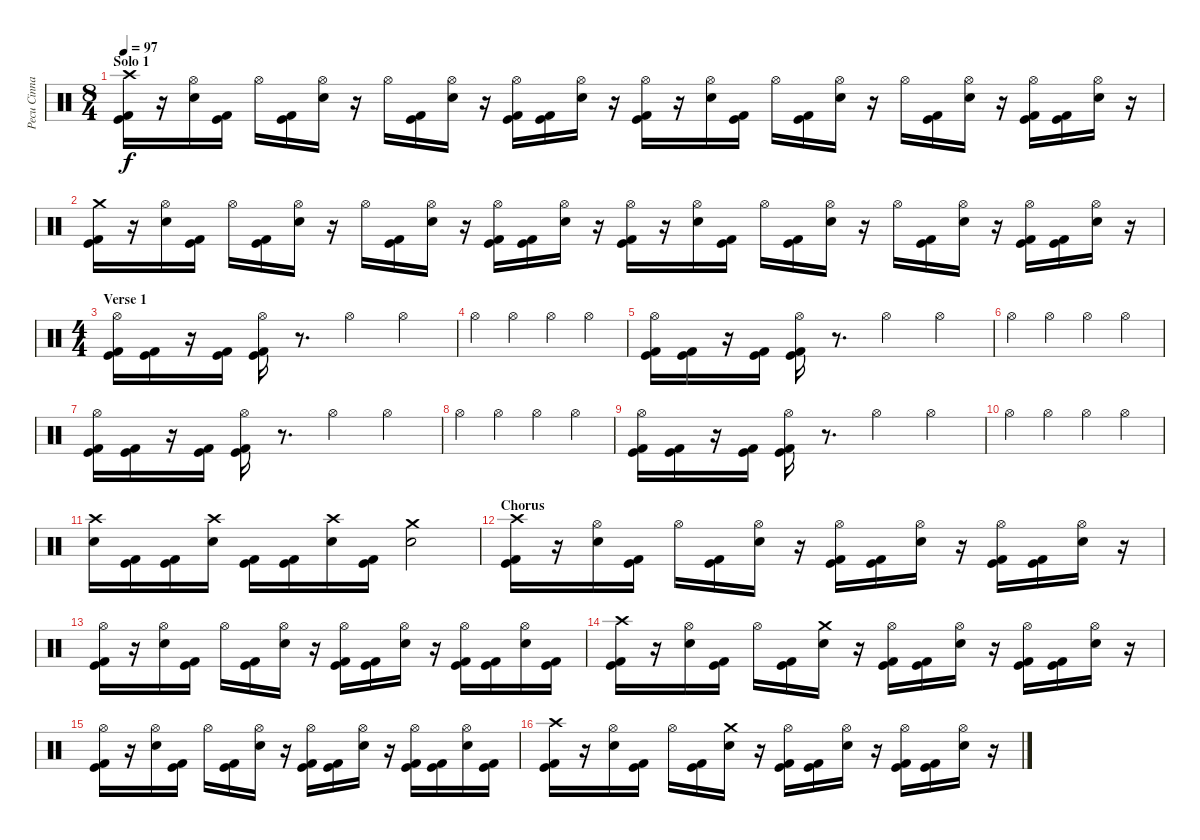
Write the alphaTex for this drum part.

\track ("Pecu Cinnari" "Pecu Cinna") {instrument percussion}
\staff {score}
\articulation defaults
\ts (8 4)
\section ("" "Solo 1")
\tempo 97
\clef neutral
\ks c
("Crash high (hit)" "Kick (hit)" "Kick (hit) 2").16{dy f} r.16 ("Hi-Hat (open)" "Electric Snare (hit)").16 ("Kick (hit)" "Kick (hit) 2").16 "Hi-Hat (open)".16 ("Kick (hit)" "Kick (hit) 2").16 ("Hi-Hat (open)" "Electric Snare (hit)").16 r.16 "Hi-Hat (open)".16 ("Kick (hit)" "Kick (hit) 2").16 ("Hi-Hat (open)" "Electric Snare (hit)").16 r.16 ("Hi-Hat (open)" "Kick (hit)" "Kick (hit) 2").16 ("Kick (hit)" "Kick (hit) 2").16 ("Hi-Hat (open)" "Electric Snare (hit)").16 r.16 ("Hi-Hat (open)" "Kick (hit)" "Kick (hit) 2").16 r.16 ("Hi-Hat (open)" "Electric Snare (hit)").16 ("Kick (hit)" "Kick (hit) 2").16 "Hi-Hat (open)".16 ("Kick (hit)" "Kick (hit) 2").16 ("Hi-Hat (open)" "Electric Snare (hit)").16 r.16 "Hi-Hat (open)".16 ("Kick (hit)" "Kick (hit) 2").16 ("Hi-Hat (open)" "Electric Snare (hit)").16 r.16 ("Hi-Hat (open)" "Kick (hit)" "Kick (hit) 2").16 ("Kick (hit)" "Kick (hit) 2").16 ("Hi-Hat (open)" "Electric Snare (hit)").16 r.16 |
("Crash medium (hit)" "Kick (hit)" "Kick (hit) 2").16 r.16 ("Hi-Hat (open)" "Electric Snare (hit)").16 ("Kick (hit)" "Kick (hit) 2").16 "Hi-Hat (open)".16 ("Kick (hit)" "Kick (hit) 2").16 ("Hi-Hat (open)" "Electric Snare (hit)").16 r.16 "Hi-Hat (open)".16 ("Kick (hit)" "Kick (hit) 2").16 ("Hi-Hat (open)" "Electric Snare (hit)").16 r.16 ("Hi-Hat (open)" "Kick (hit)" "Kick (hit) 2").16 ("Kick (hit)" "Kick (hit) 2").16 ("Hi-Hat (open)" "Electric Snare (hit)").16 r.16 ("Hi-Hat (open)" "Kick (hit)" "Kick (hit) 2").16 r.16 ("Hi-Hat (open)" "Electric Snare (hit)").16 ("Kick (hit)" "Kick (hit) 2").16 "Hi-Hat (open)".16 ("Kick (hit)" "Kick (hit) 2").16 ("Hi-Hat (open)" "Electric Snare (hit)").16 r.16 "Hi-Hat (open)".16 ("Kick (hit)" "Kick (hit) 2").16 ("Hi-Hat (open)" "Electric Snare (hit)").16 r.16 ("Hi-Hat (open)" "Kick (hit)" "Kick (hit) 2").16 ("Kick (hit)" "Kick (hit) 2").16 ("Hi-Hat (open)" "Electric Snare (hit)").16 r.16 |
\ts (4 4)
\section ("" "Verse 1")
("Hi-Hat (open)" "Kick (hit)" "Kick (hit) 2").16 ("Kick (hit)" "Kick (hit) 2").16 r.16 ("Kick (hit)" "Kick (hit) 2").16 ("Hi-Hat (open)" "Kick (hit)" "Kick (hit) 2").16 r.8{d} "Hi-Hat (open)".4 "Hi-Hat (open)".4 |
"Hi-Hat (open)".4 "Hi-Hat (open)".4 "Hi-Hat (open)".4 "Hi-Hat (open)".4 |
("Hi-Hat (open)" "Kick (hit)" "Kick (hit) 2").16 ("Kick (hit)" "Kick (hit) 2").16 r.16 ("Kick (hit)" "Kick (hit) 2").16 ("Hi-Hat (open)" "Kick (hit)" "Kick (hit) 2").16 r.8{d} "Hi-Hat (open)".4 "Hi-Hat (open)".4 |
"Hi-Hat (open)".4 "Hi-Hat (open)".4 "Hi-Hat (open)".4 "Hi-Hat (open)".4 |
("Hi-Hat (open)" "Kick (hit)" "Kick (hit) 2").16 ("Kick (hit)" "Kick (hit) 2").16 r.16 ("Kick (hit)" "Kick (hit) 2").16 ("Hi-Hat (open)" "Kick (hit)" "Kick (hit) 2").16 r.8{d} "Hi-Hat (open)".4 "Hi-Hat (open)".4 |
"Hi-Hat (open)".4 "Hi-Hat (open)".4 "Hi-Hat (open)".4 "Hi-Hat (open)".4 |
("Hi-Hat (open)" "Kick (hit)" "Kick (hit) 2").16 ("Kick (hit)" "Kick (hit) 2").16 r.16 ("Kick (hit)" "Kick (hit) 2").16 ("Hi-Hat (open)" "Kick (hit)" "Kick (hit) 2").16 r.8{d} "Hi-Hat (open)".4 "Hi-Hat (open)".4 |
"Hi-Hat (open)".4 "Hi-Hat (open)".4 "Hi-Hat (open)".4 "Hi-Hat (open)".4 |
("Crash high (hit)" "Electric Snare (hit)").16 ("Kick (hit)" "Kick (hit) 2").16 ("Kick (hit)" "Kick (hit) 2").16 ("Crash high (hit)" "Electric Snare (hit)").16 ("Kick (hit)" "Kick (hit) 2").16 ("Kick (hit)" "Kick (hit) 2").16 ("Crash high (hit)" "Electric Snare (hit)").16 ("Kick (hit)" "Kick (hit) 2").16 ("Crash medium (hit)" "Electric Snare (hit)").2 |
\section ("" "Chorus")
("Crash high (hit)" "Kick (hit)" "Kick (hit) 2").16 r.16 ("Hi-Hat (open)" "Electric Snare (hit)").16 ("Kick (hit)" "Kick (hit) 2").16 "Hi-Hat (open)".16 ("Kick (hit)" "Kick (hit) 2").16 ("Hi-Hat (open)" "Electric Snare (hit)").16 r.16 ("Hi-Hat (open)" "Kick (hit)" "Kick (hit) 2").16 ("Kick (hit)" "Kick (hit) 2").16 ("Hi-Hat (open)" "Electric Snare (hit)").16 r.16 ("Hi-Hat (open)" "Kick (hit)" "Kick (hit) 2").16 ("Kick (hit)" "Kick (hit) 2").16 ("Hi-Hat (open)" "Electric Snare (hit)").16 r.16 |
("Hi-Hat (open)" "Kick (hit)" "Kick (hit) 2").16 r.16 ("Hi-Hat (open)" "Electric Snare (hit)").16 ("Kick (hit)" "Kick (hit) 2").16 "Hi-Hat (open)".16 ("Kick (hit)" "Kick (hit) 2").16 ("Hi-Hat (open)" "Electric Snare (hit)").16 r.16 ("Hi-Hat (open)" "Kick (hit)" "Kick (hit) 2").16 ("Kick (hit)" "Kick (hit) 2").16 ("Hi-Hat (open)" "Electric Snare (hit)").16 r.16 ("Hi-Hat (open)" "Kick (hit)" "Kick (hit) 2").16 ("Kick (hit)" "Kick (hit) 2").16 ("Hi-Hat (open)" "Electric Snare (hit)").16 ("Kick (hit)" "Kick (hit) 2").16 |
("Crash high (hit)" "Kick (hit)" "Kick (hit) 2").16 r.16 ("Hi-Hat (open)" "Electric Snare (hit)").16 ("Kick (hit)" "Kick (hit) 2").16 "Hi-Hat (open)".16 ("Kick (hit)" "Kick (hit) 2").16 ("Crash medium (hit)" "Electric Snare (hit)").16 r.16 ("Hi-Hat (open)" "Kick (hit)" "Kick (hit) 2").16 ("Kick (hit)" "Kick (hit) 2").16 ("Hi-Hat (open)" "Electric Snare (hit)").16 r.16 ("Hi-Hat (open)" "Kick (hit)" "Kick (hit) 2").16 ("Kick (hit)" "Kick (hit) 2").16 ("Hi-Hat (open)" "Electric Snare (hit)").16 r.16 |
("Hi-Hat (open)" "Kick (hit)" "Kick (hit) 2").16 r.16 ("Hi-Hat (open)" "Electric Snare (hit)").16 ("Kick (hit)" "Kick (hit) 2").16 "Hi-Hat (open)".16 ("Kick (hit)" "Kick (hit) 2").16 ("Hi-Hat (open)" "Electric Snare (hit)").16 r.16 ("Hi-Hat (open)" "Kick (hit)" "Kick (hit) 2").16 ("Kick (hit)" "Kick (hit) 2").16 ("Hi-Hat (open)" "Electric Snare (hit)").16 r.16 ("Hi-Hat (open)" "Kick (hit)" "Kick (hit) 2").16 ("Kick (hit)" "Kick (hit) 2").16 ("Hi-Hat (open)" "Electric Snare (hit)").16 ("Kick (hit)" "Kick (hit) 2").16 |
("Crash high (hit)" "Kick (hit)" "Kick (hit) 2").16 r.16 ("Hi-Hat (open)" "Electric Snare (hit)").16 ("Kick (hit)" "Kick (hit) 2").16 "Hi-Hat (open)".16 ("Kick (hit)" "Kick (hit) 2").16 ("Crash medium (hit)" "Electric Snare (hit)").16 r.16 ("Hi-Hat (open)" "Kick (hit)" "Kick (hit) 2").16 ("Kick (hit)" "Kick (hit) 2").16 ("Hi-Hat (open)" "Electric Snare (hit)").16 r.16 ("Hi-Hat (open)" "Kick (hit)" "Kick (hit) 2").16 ("Kick (hit)" "Kick (hit) 2").16 ("Hi-Hat (open)" "Electric Snare (hit)").16 r.16
